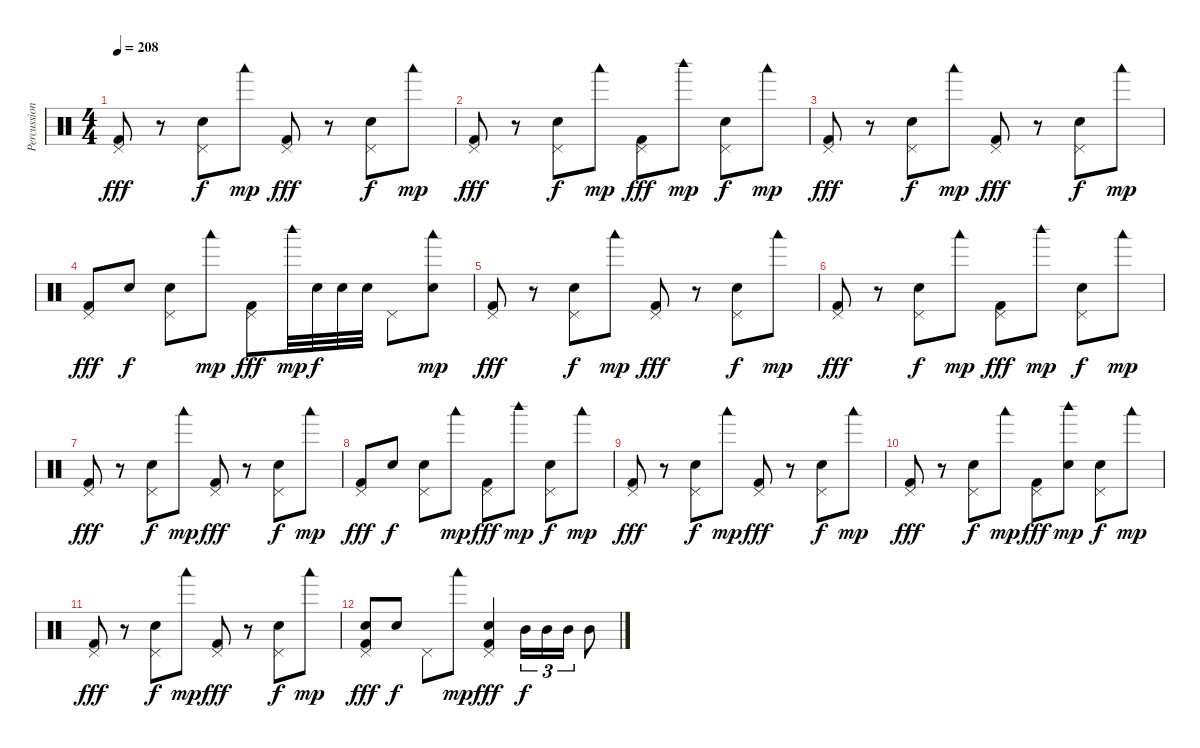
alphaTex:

\track ("Percussions" "Percussion") {instrument percussion}
\staff {score}
\articulation defaults
\ts (4 4)
\tempo 208
\clef neutral
\ks c
("Pedal Hi-Hat (hit)" "Kick (hit) 2").8{dy fff} r.8 ("Pedal Hi-Hat (hit)" "Electric Snare (hit)").8{dy f} "Woodblock low (hit)".8{dy mp} ("Pedal Hi-Hat (hit)" "Kick (hit) 2").8{dy fff} r.8 ("Pedal Hi-Hat (hit)" "Electric Snare (hit)").8{dy f} "Woodblock low (hit)".8{dy mp} |
("Pedal Hi-Hat (hit)" "Kick (hit) 2").8{dy fff} r.8 ("Pedal Hi-Hat (hit)" "Electric Snare (hit)").8{dy f} "Woodblock low (hit)".8{dy mp} ("Pedal Hi-Hat (hit)" "Kick (hit) 2").8{dy fff} "Woodblock high (hit)".8{dy mp} ("Pedal Hi-Hat (hit)" "Electric Snare (hit)").8{dy f} "Woodblock low (hit)".8{dy mp} |
("Pedal Hi-Hat (hit)" "Kick (hit) 2").8{dy fff} r.8 ("Pedal Hi-Hat (hit)" "Electric Snare (hit)").8{dy f} "Woodblock low (hit)".8{dy mp} ("Pedal Hi-Hat (hit)" "Kick (hit) 2").8{dy fff} r.8 ("Pedal Hi-Hat (hit)" "Electric Snare (hit)").8{dy f} "Woodblock low (hit)".8{dy mp} |
("Pedal Hi-Hat (hit)" "Kick (hit) 2").8{dy fff} "Electric Snare (hit)".8{dy f} ("Pedal Hi-Hat (hit)" "Electric Snare (hit)").8 "Woodblock low (hit)".8{dy mp} ("Pedal Hi-Hat (hit)" "Kick (hit) 2").8{dy fff} "Woodblock high (hit)".32{dy mp} "Electric Snare (hit)".32{dy f} "Electric Snare (hit)".32 "Electric Snare (hit)".32 "Pedal Hi-Hat (hit)".8 ("Electric Snare (hit)" "Woodblock low (hit)").8{dy mp} |
("Pedal Hi-Hat (hit)" "Kick (hit) 2").8{dy fff} r.8 ("Pedal Hi-Hat (hit)" "Electric Snare (hit)").8{dy f} "Woodblock low (hit)".8{dy mp} ("Pedal Hi-Hat (hit)" "Kick (hit) 2").8{dy fff} r.8 ("Pedal Hi-Hat (hit)" "Electric Snare (hit)").8{dy f} "Woodblock low (hit)".8{dy mp} |
("Pedal Hi-Hat (hit)" "Kick (hit) 2").8{dy fff} r.8 ("Pedal Hi-Hat (hit)" "Electric Snare (hit)").8{dy f} "Woodblock low (hit)".8{dy mp} ("Pedal Hi-Hat (hit)" "Kick (hit) 2").8{dy fff} "Woodblock high (hit)".8{dy mp} ("Pedal Hi-Hat (hit)" "Electric Snare (hit)").8{dy f} "Woodblock low (hit)".8{dy mp} |
("Pedal Hi-Hat (hit)" "Kick (hit) 2").8{dy fff} r.8 ("Pedal Hi-Hat (hit)" "Electric Snare (hit)").8{dy f} "Woodblock low (hit)".8{dy mp} ("Pedal Hi-Hat (hit)" "Kick (hit) 2").8{dy fff} r.8 ("Pedal Hi-Hat (hit)" "Electric Snare (hit)").8{dy f} "Woodblock low (hit)".8{dy mp} |
("Pedal Hi-Hat (hit)" "Kick (hit) 2").8{dy fff} "Electric Snare (hit)".8{dy f} ("Pedal Hi-Hat (hit)" "Electric Snare (hit)").8 "Woodblock low (hit)".8{dy mp} ("Pedal Hi-Hat (hit)" "Kick (hit) 2").8{dy fff} "Woodblock high (hit)".8{dy mp} ("Pedal Hi-Hat (hit)" "Electric Snare (hit)").8{dy f} "Woodblock low (hit)".8{dy mp} |
("Pedal Hi-Hat (hit)" "Kick (hit) 2").8{dy fff} r.8 ("Pedal Hi-Hat (hit)" "Electric Snare (hit)").8{dy f} "Woodblock low (hit)".8{dy mp} ("Pedal Hi-Hat (hit)" "Kick (hit) 2").8{dy fff} r.8 ("Pedal Hi-Hat (hit)" "Electric Snare (hit)").8{dy f} "Woodblock low (hit)".8{dy mp} |
("Pedal Hi-Hat (hit)" "Kick (hit) 2").8{dy fff} r.8 ("Pedal Hi-Hat (hit)" "Electric Snare (hit)").8{dy f} "Woodblock low (hit)".8{dy mp} ("Pedal Hi-Hat (hit)" "Kick (hit) 2").8{dy fff} ("Electric Snare (hit)" "Woodblock high (hit)").8{dy mp} ("Pedal Hi-Hat (hit)" "Electric Snare (hit)").8{dy f} "Woodblock low (hit)".8{dy mp} |
("Pedal Hi-Hat (hit)" "Kick (hit) 2").8{dy fff} r.8 ("Pedal Hi-Hat (hit)" "Electric Snare (hit)").8{dy f} "Woodblock low (hit)".8{dy mp} ("Pedal Hi-Hat (hit)" "Kick (hit) 2").8{dy fff} r.8 ("Pedal Hi-Hat (hit)" "Electric Snare (hit)").8{dy f} "Woodblock low (hit)".8{dy mp} |
("Pedal Hi-Hat (hit)" "Electric Snare (hit)" "Kick (hit) 2").8{dy fff} "Electric Snare (hit)".8{dy f} "Pedal Hi-Hat (hit)".8 "Woodblock low (hit)".8{dy mp} ("Pedal Hi-Hat (hit)" "Electric Snare (hit)" "Kick (hit) 2").4{dy fff} "Mid Tom (hit)".16{tu (3 2) dy f} "Mid Tom (hit)".16{tu (3 2)} "Mid Tom (hit)".16{tu (3 2)} "Mid Tom (hit)".8
